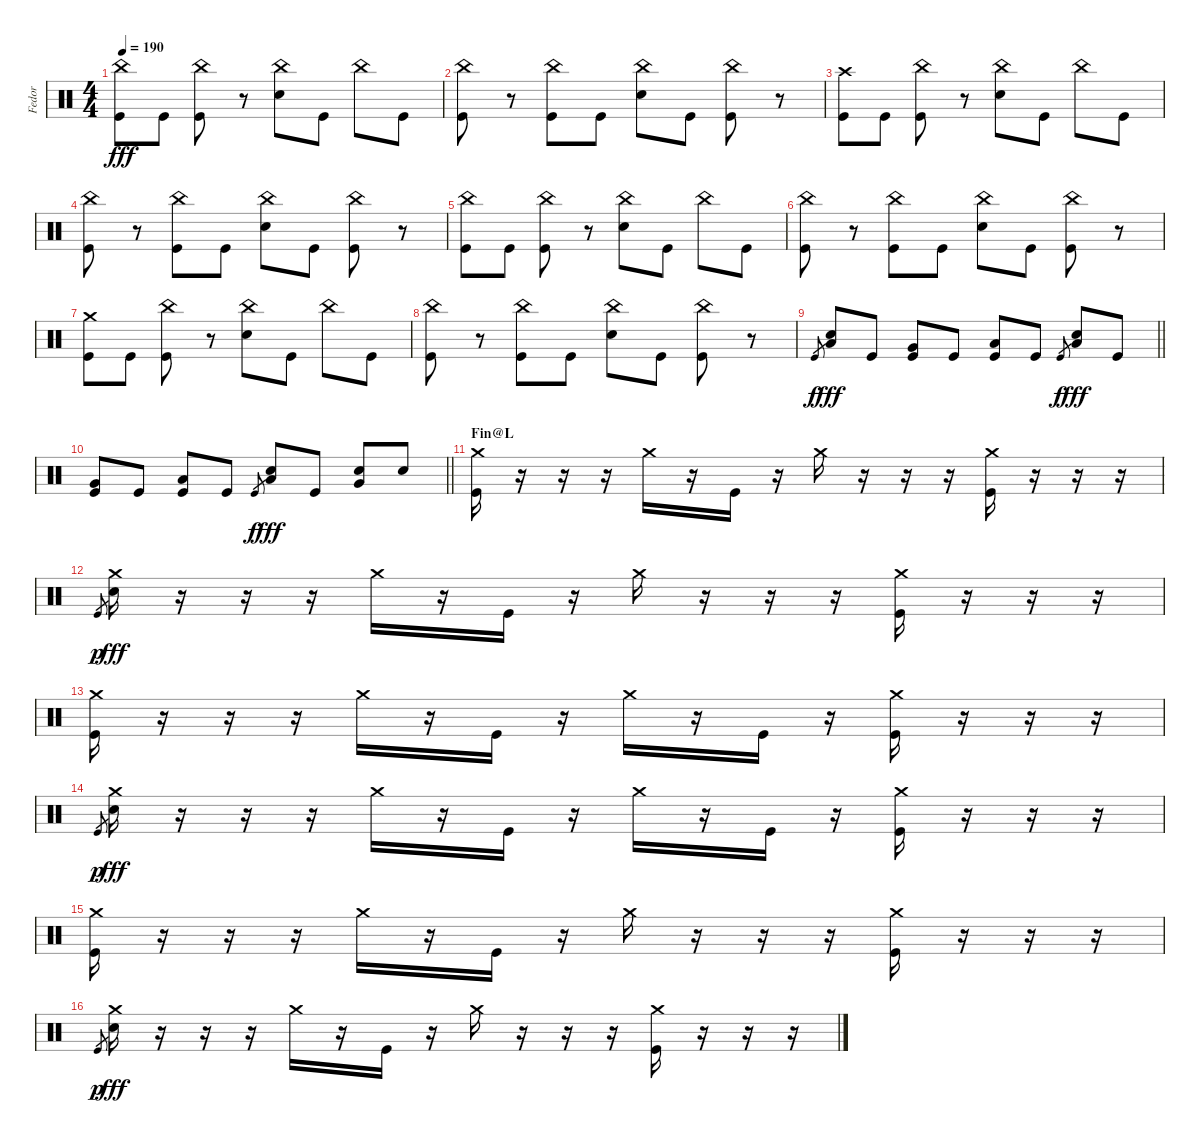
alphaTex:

\track ("Fedor" "Fedor") {instrument percussion}
\staff {score}
\articulation defaults
\ts (4 4)
\tempo 190
\clef neutral
\ks c
("China (hit)" "Kick (hit)").8{dy fff} "Kick (hit)".8 ("China (hit)" "Kick (hit)").8 r.8 ("China (hit)" "Electric Snare (hit)").8 "Kick (hit)".8 "China (hit)".8 "Kick (hit)".8 |
("China (hit)" "Kick (hit)").8 r.8 ("China (hit)" "Kick (hit)").8 "Kick (hit)".8 ("China (hit)" "Electric Snare (hit)").8 "Kick (hit)".8 ("China (hit)" "Kick (hit)").8 r.8 |
("Crash high (hit)" "Kick (hit)").8 "Kick (hit)".8 ("China (hit)" "Kick (hit)").8 r.8 ("China (hit)" "Electric Snare (hit)").8 "Kick (hit)".8 "China (hit)".8 "Kick (hit)".8 |
("China (hit)" "Kick (hit)").8 r.8 ("China (hit)" "Kick (hit)").8 "Kick (hit)".8 ("China (hit)" "Electric Snare (hit)").8 "Kick (hit)".8 ("China (hit)" "Kick (hit)").8 r.8 |
("China (hit)" "Kick (hit)").8 "Kick (hit)".8 ("China (hit)" "Kick (hit)").8 r.8 ("China (hit)" "Electric Snare (hit)").8 "Kick (hit)".8 "China (hit)".8 "Kick (hit)".8 |
("China (hit)" "Kick (hit)").8 r.8 ("China (hit)" "Kick (hit)").8 "Kick (hit)".8 ("China (hit)" "Electric Snare (hit)").8 "Kick (hit)".8 ("China (hit)" "Kick (hit)").8 r.8 |
("Crash medium (hit)" "Kick (hit)").8 "Kick (hit)".8 ("China (hit)" "Kick (hit)").8 r.8 ("China (hit)" "Electric Snare (hit)").8 "Kick (hit)".8 "China (hit)".8 "Kick (hit)".8 |
("China (hit)" "Kick (hit)").8 r.8 ("China (hit)" "Kick (hit)").8 "Kick (hit)".8 ("China (hit)" "Electric Snare (hit)").8 "Kick (hit)".8 ("China (hit)" "Kick (hit)").8 r.8 |
\barLineRight lightlight "Kick (hit)".8{gr dy f}
("Electric Snare (hit)" "Low Tom (hit)").8{dy fff} "Kick (hit)".8 ("Kick (hit)" "Very Low Tom (hit)").8 "Kick (hit)".8 ("Kick (hit)" "Low Floor Tom (hit)").8 "Kick (hit)".8 "Kick (hit)".8{gr dy f} ("Electric Snare (hit)" "Low Tom (hit)").8{dy fff} "Kick (hit)".8 |
\barLineRight lightlight
("Kick (hit)" "Very Low Tom (hit)").8 "Kick (hit)".8 ("Kick (hit)" "Low Floor Tom (hit)").8 "Kick (hit)".8 "Kick (hit)".8{gr dy f} ("Electric Snare (hit)" "Low Tom (hit)").8{dy fff} "Kick (hit)".8 ("Electric Snare (hit)" "Very Low Tom (hit)").8 "Electric Snare (hit)".8 |
\section ("" "Fin@L")
("Crash medium (hit)" "Kick (hit)").16 r.16 r.16 r.16 "Crash medium (hit)".16 r.16 "Kick (hit)".16 r.16 "Crash medium (hit)".16 r.16 r.16 r.16 ("Crash medium (hit)" "Kick (hit)").16 r.16 r.16 r.16 |
"Kick (hit)".8{gr dy p} ("Crash medium (hit)" "Electric Snare (hit)").16{dy fff} r.16 r.16 r.16 "Crash medium (hit)".16 r.16 "Kick (hit)".16 r.16 "Crash medium (hit)".16 r.16 r.16 r.16 ("Crash medium (hit)" "Kick (hit)").16 r.16 r.16 r.16 |
("Crash medium (hit)" "Kick (hit)").16 r.16 r.16 r.16 "Crash medium (hit)".16 r.16 "Kick (hit)".16 r.16 "Crash medium (hit)".16 r.16 "Kick (hit)".16 r.16 ("Crash medium (hit)" "Kick (hit)").16 r.16 r.16 r.16 |
"Kick (hit)".8{gr dy p} ("Crash medium (hit)" "Electric Snare (hit)").16{dy fff} r.16 r.16 r.16 "Crash medium (hit)".16 r.16 "Kick (hit)".16 r.16 "Crash medium (hit)".16 r.16 "Kick (hit)".16 r.16 ("Crash medium (hit)" "Kick (hit)").16 r.16 r.16 r.16 |
("Crash medium (hit)" "Kick (hit)").16 r.16 r.16 r.16 "Crash medium (hit)".16 r.16 "Kick (hit)".16 r.16 "Crash medium (hit)".16 r.16 r.16 r.16 ("Crash medium (hit)" "Kick (hit)").16 r.16 r.16 r.16 |
"Kick (hit)".8{gr dy p} ("Crash medium (hit)" "Electric Snare (hit)").16{dy fff} r.16 r.16 r.16 "Crash medium (hit)".16 r.16 "Kick (hit)".16 r.16 "Crash medium (hit)".16 r.16 r.16 r.16 ("Crash medium (hit)" "Kick (hit)").16 r.16 r.16 r.16
